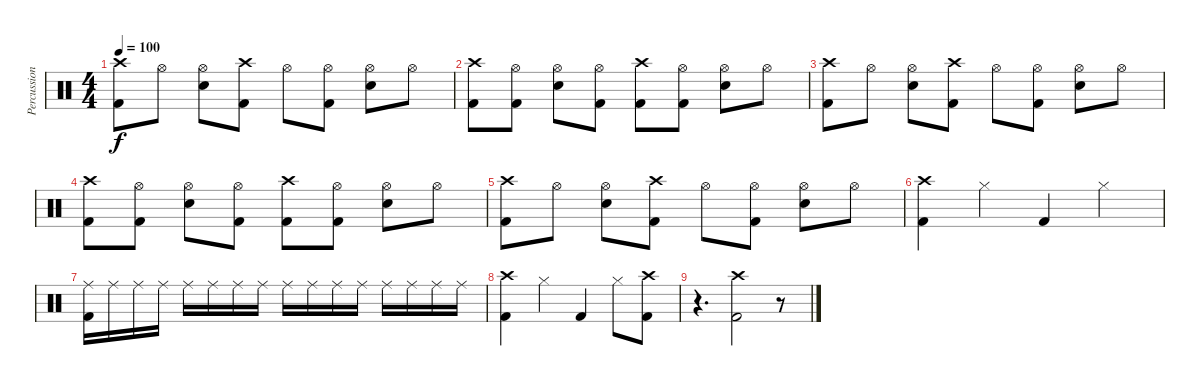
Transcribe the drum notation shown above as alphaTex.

\track ("Percussion" "Percussion") {instrument percussion}
\staff {score}
\articulation defaults
\ts (4 4)
\tempo 100
\clef neutral
\ks c
("Crash high (hit)" "Kick (hit) 2").8{dy f} "Hi-Hat (open)".8 ("Hi-Hat (open)" "Snare (hit) 2").8 ("Crash high (hit)" "Kick (hit) 2").8 "Hi-Hat (open)".8 ("Hi-Hat (open)" "Kick (hit) 2").8 ("Hi-Hat (open)" "Snare (hit) 2").8 "Hi-Hat (open)".8 |
("Crash high (hit)" "Kick (hit) 2").8 ("Hi-Hat (open)" "Kick (hit) 2").8 ("Hi-Hat (open)" "Snare (hit) 2").8 ("Hi-Hat (open)" "Kick (hit) 2").8 ("Crash high (hit)" "Kick (hit) 2").8 ("Hi-Hat (open)" "Kick (hit) 2").8 ("Hi-Hat (open)" "Snare (hit) 2").8 "Hi-Hat (open)".8 |
("Crash high (hit)" "Kick (hit) 2").8 "Hi-Hat (open)".8 ("Hi-Hat (open)" "Snare (hit) 2").8 ("Crash high (hit)" "Kick (hit) 2").8 "Hi-Hat (open)".8 ("Hi-Hat (open)" "Kick (hit) 2").8 ("Hi-Hat (open)" "Snare (hit) 2").8 "Hi-Hat (open)".8 |
("Crash high (hit)" "Kick (hit) 2").8 ("Hi-Hat (open)" "Kick (hit) 2").8 ("Hi-Hat (open)" "Snare (hit) 2").8 ("Hi-Hat (open)" "Kick (hit) 2").8 ("Crash high (hit)" "Kick (hit) 2").8 ("Hi-Hat (open)" "Kick (hit) 2").8 ("Hi-Hat (open)" "Snare (hit) 2").8 "Hi-Hat (open)".8 |
("Crash high (hit)" "Kick (hit) 2").8 "Hi-Hat (open)".8 ("Hi-Hat (open)" "Snare (hit) 2").8 ("Crash high (hit)" "Kick (hit) 2").8 "Hi-Hat (open)".8 ("Hi-Hat (open)" "Kick (hit) 2").8 ("Hi-Hat (open)" "Snare (hit) 2").8 "Hi-Hat (open)".8 |
("Crash high (hit)" "Kick (hit) 2").4 "Hi-Hat (closed)".4 "Kick (hit) 2".4 "Hi-Hat (closed)".4 |
("Ride (middle)" "Kick (hit) 2").16 "Ride (middle)".16 "Ride (middle)".16 "Ride (middle)".16 "Ride (middle)".16 "Ride (middle)".16 "Ride (middle)".16 "Ride (middle)".16 "Ride (middle)".16 "Ride (middle)".16 "Ride (middle)".16 "Ride (middle)".16 "Ride (middle)".16 "Ride (middle)".16 "Ride (middle)".16 "Ride (middle)".16 |
("Crash high (hit)" "Kick (hit) 2").4 "Hi-Hat (closed)".4 "Kick (hit) 2".4 "Hi-Hat (closed)".8 ("Crash high (hit)" "Kick (hit) 2").8 |
r.4{d} ("Crash high (hit)" "Kick (hit) 2").2 r.8
